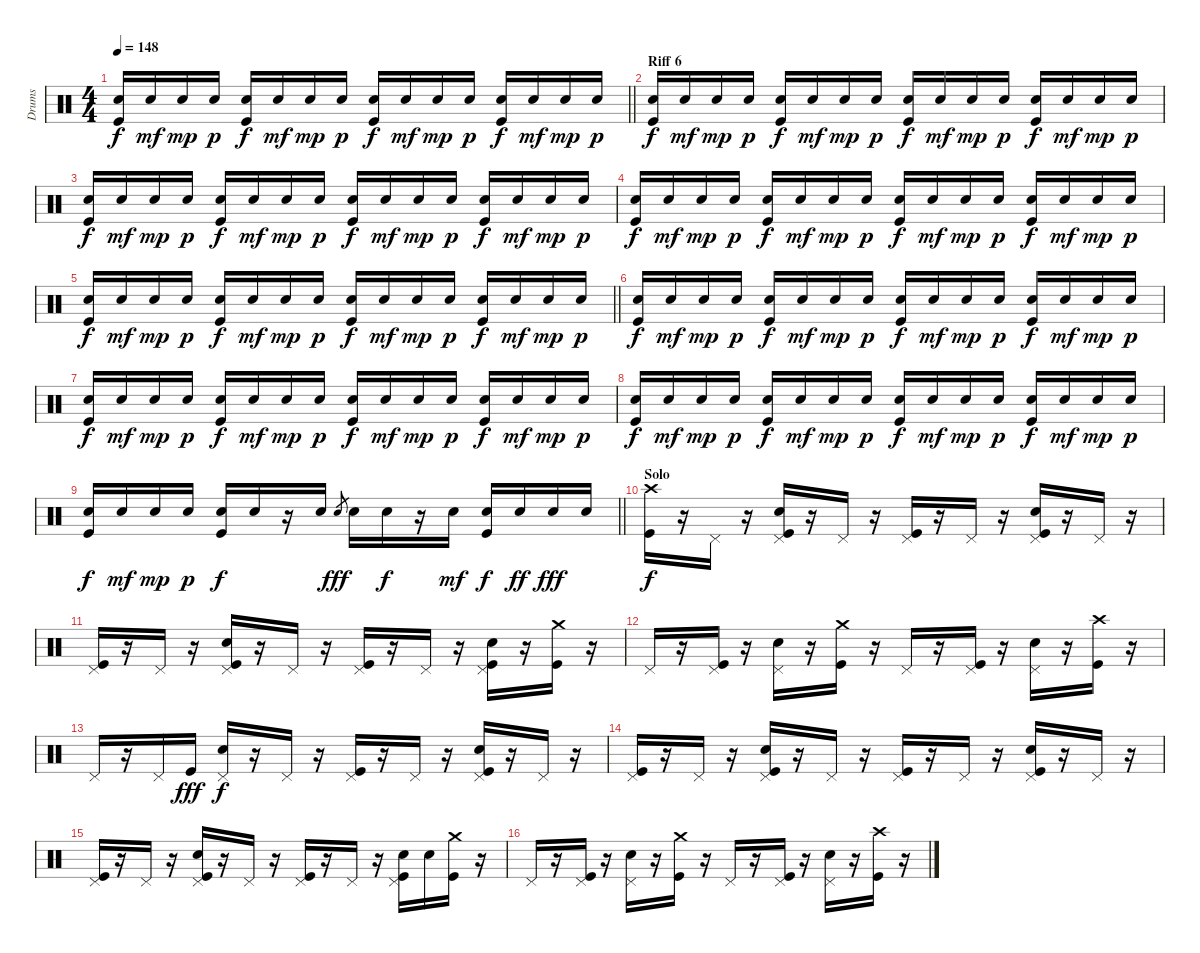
\track ("Drums" "Drums") {instrument percussion}
\staff {score}
\articulation defaults
\ts (4 4)
\tempo 148
\clef neutral
\barLineRight lightlight
\ks c
("Snare (hit) 2" "Kick (hit)").16{dy f} "Snare (hit) 2".16{dy mf} "Snare (hit) 2".16{dy mp} "Snare (hit) 2".16{dy p} ("Snare (hit) 2" "Kick (hit)").16{dy f} "Snare (hit) 2".16{dy mf} "Snare (hit) 2".16{dy mp} "Snare (hit) 2".16{dy p} ("Snare (hit) 2" "Kick (hit)").16{dy f} "Snare (hit) 2".16{dy mf} "Snare (hit) 2".16{dy mp} "Snare (hit) 2".16{dy p} ("Snare (hit) 2" "Kick (hit)").16{dy f} "Snare (hit) 2".16{dy mf} "Snare (hit) 2".16{dy mp} "Snare (hit) 2".16{dy p} |
\section ("" "Riff 6")
("Snare (hit) 2" "Kick (hit)").16{dy f volume 12} "Snare (hit) 2".16{dy mf} "Snare (hit) 2".16{dy mp} "Snare (hit) 2".16{dy p} ("Snare (hit) 2" "Kick (hit)").16{dy f} "Snare (hit) 2".16{dy mf} "Snare (hit) 2".16{dy mp} "Snare (hit) 2".16{dy p} ("Snare (hit) 2" "Kick (hit)").16{dy f} "Snare (hit) 2".16{dy mf} "Snare (hit) 2".16{dy mp} "Snare (hit) 2".16{dy p} ("Snare (hit) 2" "Kick (hit)").16{dy f} "Snare (hit) 2".16{dy mf} "Snare (hit) 2".16{dy mp} "Snare (hit) 2".16{dy p} |
("Snare (hit) 2" "Kick (hit)").16{dy f} "Snare (hit) 2".16{dy mf} "Snare (hit) 2".16{dy mp} "Snare (hit) 2".16{dy p} ("Snare (hit) 2" "Kick (hit)").16{dy f} "Snare (hit) 2".16{dy mf} "Snare (hit) 2".16{dy mp} "Snare (hit) 2".16{dy p} ("Snare (hit) 2" "Kick (hit)").16{dy f} "Snare (hit) 2".16{dy mf} "Snare (hit) 2".16{dy mp} "Snare (hit) 2".16{dy p} ("Snare (hit) 2" "Kick (hit)").16{dy f} "Snare (hit) 2".16{dy mf} "Snare (hit) 2".16{dy mp} "Snare (hit) 2".16{dy p} |
("Snare (hit) 2" "Kick (hit)").16{dy f} "Snare (hit) 2".16{dy mf} "Snare (hit) 2".16{dy mp} "Snare (hit) 2".16{dy p} ("Snare (hit) 2" "Kick (hit)").16{dy f} "Snare (hit) 2".16{dy mf} "Snare (hit) 2".16{dy mp} "Snare (hit) 2".16{dy p} ("Snare (hit) 2" "Kick (hit)").16{dy f} "Snare (hit) 2".16{dy mf} "Snare (hit) 2".16{dy mp} "Snare (hit) 2".16{dy p} ("Snare (hit) 2" "Kick (hit)").16{dy f} "Snare (hit) 2".16{dy mf} "Snare (hit) 2".16{dy mp} "Snare (hit) 2".16{dy p} |
\barLineRight lightlight
("Snare (hit) 2" "Kick (hit)").16{dy f} "Snare (hit) 2".16{dy mf} "Snare (hit) 2".16{dy mp} "Snare (hit) 2".16{dy p} ("Snare (hit) 2" "Kick (hit)").16{dy f} "Snare (hit) 2".16{dy mf} "Snare (hit) 2".16{dy mp} "Snare (hit) 2".16{dy p} ("Snare (hit) 2" "Kick (hit)").16{dy f} "Snare (hit) 2".16{dy mf} "Snare (hit) 2".16{dy mp} "Snare (hit) 2".16{dy p} ("Snare (hit) 2" "Kick (hit)").16{dy f} "Snare (hit) 2".16{dy mf} "Snare (hit) 2".16{dy mp} "Snare (hit) 2".16{dy p} |
("Snare (hit) 2" "Kick (hit)").16{dy f volume 13} "Snare (hit) 2".16{dy mf} "Snare (hit) 2".16{dy mp} "Snare (hit) 2".16{dy p} ("Snare (hit) 2" "Kick (hit)").16{dy f} "Snare (hit) 2".16{dy mf} "Snare (hit) 2".16{dy mp} "Snare (hit) 2".16{dy p} ("Snare (hit) 2" "Kick (hit)").16{dy f} "Snare (hit) 2".16{dy mf} "Snare (hit) 2".16{dy mp} "Snare (hit) 2".16{dy p} ("Snare (hit) 2" "Kick (hit)").16{dy f} "Snare (hit) 2".16{dy mf} "Snare (hit) 2".16{dy mp} "Snare (hit) 2".16{dy p} |
("Snare (hit) 2" "Kick (hit)").16{dy f} "Snare (hit) 2".16{dy mf} "Snare (hit) 2".16{dy mp} "Snare (hit) 2".16{dy p} ("Snare (hit) 2" "Kick (hit)").16{dy f} "Snare (hit) 2".16{dy mf} "Snare (hit) 2".16{dy mp} "Snare (hit) 2".16{dy p} ("Snare (hit) 2" "Kick (hit)").16{dy f} "Snare (hit) 2".16{dy mf} "Snare (hit) 2".16{dy mp} "Snare (hit) 2".16{dy p} ("Snare (hit) 2" "Kick (hit)").16{dy f} "Snare (hit) 2".16{dy mf} "Snare (hit) 2".16{dy mp} "Snare (hit) 2".16{dy p} |
("Snare (hit) 2" "Kick (hit)").16{dy f volume 14} "Snare (hit) 2".16{dy mf} "Snare (hit) 2".16{dy mp} "Snare (hit) 2".16{dy p} ("Snare (hit) 2" "Kick (hit)").16{dy f} "Snare (hit) 2".16{dy mf} "Snare (hit) 2".16{dy mp} "Snare (hit) 2".16{dy p} ("Snare (hit) 2" "Kick (hit)").16{dy f} "Snare (hit) 2".16{dy mf} "Snare (hit) 2".16{dy mp} "Snare (hit) 2".16{dy p} ("Snare (hit) 2" "Kick (hit)").16{dy f} "Snare (hit) 2".16{dy mf} "Snare (hit) 2".16{dy mp} "Snare (hit) 2".16{dy p} |
\barLineRight lightlight
("Snare (hit) 2" "Kick (hit)").16{dy f} "Snare (hit) 2".16{dy mf} "Snare (hit) 2".16{dy mp} "Snare (hit) 2".16{dy p} ("Snare (hit) 2" "Kick (hit)").16{dy f} "Snare (hit) 2".16 r.16 "Snare (hit) 2".16 "Electric Snare (hit)".8{gr dy fff} "Snare (hit) 2".16 "Snare (hit) 2".16{dy f} r.16 "Snare (hit) 2".16{dy mf} ("Snare (hit) 2" "Kick (hit)").16{dy f} "Snare (hit) 2".16{dy ff} "Snare (hit) 2".16{dy fff} "Snare (hit) 2".16 |
\section ("" "Solo")
("Crash high (hit)" "Kick (hit)").16{dy f volume 13} r.16 "Pedal Hi-Hat (hit)".16 r.16 ("Pedal Hi-Hat (hit)" "Electric Snare (hit)" "Kick (hit)").16 r.16 "Pedal Hi-Hat (hit)".16 r.16 ("Pedal Hi-Hat (hit)" "Kick (hit)").16 r.16 "Pedal Hi-Hat (hit)".16 r.16 ("Pedal Hi-Hat (hit)" "Electric Snare (hit)" "Kick (hit)").16 r.16 "Pedal Hi-Hat (hit)".16 r.16 |
("Pedal Hi-Hat (hit)" "Kick (hit)").16 r.16 "Pedal Hi-Hat (hit)".16 r.16 ("Pedal Hi-Hat (hit)" "Electric Snare (hit)" "Kick (hit)").16 r.16 "Pedal Hi-Hat (hit)".16 r.16 ("Pedal Hi-Hat (hit)" "Kick (hit)").16 r.16 "Pedal Hi-Hat (hit)".16 r.16 ("Pedal Hi-Hat (hit)" "Electric Snare (hit)" "Kick (hit)").16 r.16 ("Crash medium (hit)" "Kick (hit)").16 r.16 |
"Pedal Hi-Hat (hit)".16 r.16 ("Pedal Hi-Hat (hit)" "Kick (hit)").16 r.16 ("Pedal Hi-Hat (hit)" "Electric Snare (hit)").16 r.16 ("Crash medium (hit)" "Kick (hit)").16 r.16 "Pedal Hi-Hat (hit)".16 r.16 ("Pedal Hi-Hat (hit)" "Kick (hit)").16 r.16 ("Pedal Hi-Hat (hit)" "Electric Snare (hit)").16 r.16 ("Crash high (hit)" "Kick (hit)").16 r.16 |
"Pedal Hi-Hat (hit)".16 r.16 "Pedal Hi-Hat (hit)".16 "Kick (hit)".16{dy fff} ("Pedal Hi-Hat (hit)" "Electric Snare (hit)").16{dy f} r.16 "Pedal Hi-Hat (hit)".16 r.16 ("Pedal Hi-Hat (hit)" "Kick (hit)").16 r.16 "Pedal Hi-Hat (hit)".16 r.16 ("Pedal Hi-Hat (hit)" "Electric Snare (hit)" "Kick (hit)").16 r.16 "Pedal Hi-Hat (hit)".16 r.16 |
("Pedal Hi-Hat (hit)" "Kick (hit)").16 r.16 "Pedal Hi-Hat (hit)".16 r.16 ("Pedal Hi-Hat (hit)" "Electric Snare (hit)" "Kick (hit)").16 r.16 "Pedal Hi-Hat (hit)".16 r.16 ("Pedal Hi-Hat (hit)" "Kick (hit)").16 r.16 "Pedal Hi-Hat (hit)".16 r.16 ("Pedal Hi-Hat (hit)" "Electric Snare (hit)" "Kick (hit)").16 r.16 "Pedal Hi-Hat (hit)".16 r.16 |
("Pedal Hi-Hat (hit)" "Kick (hit)").16 r.16 "Pedal Hi-Hat (hit)".16 r.16 ("Pedal Hi-Hat (hit)" "Electric Snare (hit)" "Kick (hit)").16 r.16 "Pedal Hi-Hat (hit)".16 r.16 ("Pedal Hi-Hat (hit)" "Kick (hit)").16 r.16 "Pedal Hi-Hat (hit)".16 r.16 ("Pedal Hi-Hat (hit)" "Electric Snare (hit)" "Kick (hit)").16 "Electric Snare (hit)".16 ("Crash medium (hit)" "Kick (hit)").16 r.16 |
"Pedal Hi-Hat (hit)".16 r.16 ("Pedal Hi-Hat (hit)" "Kick (hit)").16 r.16 ("Pedal Hi-Hat (hit)" "Electric Snare (hit)").16 r.16 ("Crash medium (hit)" "Kick (hit)").16 r.16 "Pedal Hi-Hat (hit)".16 r.16 ("Pedal Hi-Hat (hit)" "Kick (hit)").16 r.16 ("Pedal Hi-Hat (hit)" "Electric Snare (hit)").16 r.16 ("Crash high (hit)" "Kick (hit)").16 r.16
